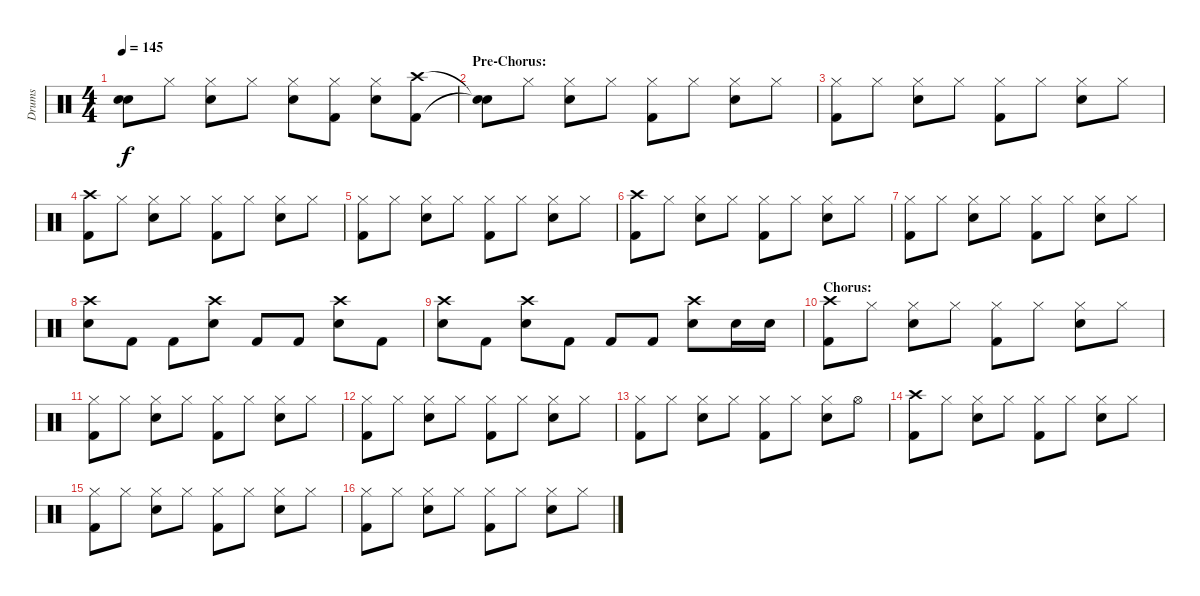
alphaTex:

\track ("Drums" "Drums") {instrument percussion}
\staff {score}
\articulation defaults
\ts (4 4)
\tempo 145
\clef neutral
\ks c
("Snare (hit)"{t} "Snare (hit)"{t}).8{dy f} "Hi-Hat (closed)".8 ("Hi-Hat (closed)" "Electric Snare (hit)").8 "Hi-Hat (closed)".8 ("Hi-Hat (closed)" "Electric Snare (hit)").8 ("Hi-Hat (closed)" "Kick (hit) 2").8 ("Hi-Hat (closed)" "Electric Snare (hit)").8 ("Crash high (hit)" "Kick (hit) 2").8 |
\section ("" "Pre-Chorus:")
("Snare (hit)"{t} "Snare (hit)"{t}).8 "Hi-Hat (closed)".8 ("Hi-Hat (closed)" "Electric Snare (hit)").8 "Hi-Hat (closed)".8 ("Hi-Hat (closed)" "Kick (hit) 2").8 "Hi-Hat (closed)".8 ("Hi-Hat (closed)" "Electric Snare (hit)").8 "Hi-Hat (closed)".8 |
("Hi-Hat (closed)" "Kick (hit) 2").8 "Hi-Hat (closed)".8 ("Hi-Hat (closed)" "Electric Snare (hit)").8 "Hi-Hat (closed)".8 ("Hi-Hat (closed)" "Kick (hit) 2").8 "Hi-Hat (closed)".8 ("Hi-Hat (closed)" "Electric Snare (hit)").8 "Hi-Hat (closed)".8 |
("Crash high (hit)" "Kick (hit) 2").8 "Hi-Hat (closed)".8 ("Hi-Hat (closed)" "Electric Snare (hit)").8 "Hi-Hat (closed)".8 ("Hi-Hat (closed)" "Kick (hit) 2").8 "Hi-Hat (closed)".8 ("Hi-Hat (closed)" "Electric Snare (hit)").8 "Hi-Hat (closed)".8 |
("Hi-Hat (closed)" "Kick (hit) 2").8 "Hi-Hat (closed)".8 ("Hi-Hat (closed)" "Electric Snare (hit)").8 "Hi-Hat (closed)".8 ("Hi-Hat (closed)" "Kick (hit) 2").8 "Hi-Hat (closed)".8 ("Hi-Hat (closed)" "Electric Snare (hit)").8 "Hi-Hat (closed)".8 |
("Crash high (hit)" "Kick (hit) 2").8 "Hi-Hat (closed)".8 ("Hi-Hat (closed)" "Electric Snare (hit)").8 "Hi-Hat (closed)".8 ("Hi-Hat (closed)" "Kick (hit) 2").8 "Hi-Hat (closed)".8 ("Hi-Hat (closed)" "Electric Snare (hit)").8 "Hi-Hat (closed)".8 |
("Hi-Hat (closed)" "Kick (hit) 2").8 "Hi-Hat (closed)".8 ("Hi-Hat (closed)" "Electric Snare (hit)").8 "Hi-Hat (closed)".8 ("Hi-Hat (closed)" "Kick (hit) 2").8 "Hi-Hat (closed)".8 ("Hi-Hat (closed)" "Electric Snare (hit)").8 "Hi-Hat (closed)".8 |
("Crash high (hit)" "Electric Snare (hit)").8 "Kick (hit) 2".8 "Kick (hit) 2".8 ("Crash high (hit)" "Electric Snare (hit)").8 "Kick (hit) 2".8 "Kick (hit) 2".8 ("Crash high (hit)" "Electric Snare (hit)").8 "Kick (hit) 2".8 |
("Crash high (hit)" "Electric Snare (hit)").8 "Kick (hit) 2".8 ("Crash high (hit)" "Electric Snare (hit)").8 "Kick (hit) 2".8 "Kick (hit) 2".8 "Kick (hit) 2".8 ("Crash high (hit)" "Electric Snare (hit)").8 "Electric Snare (hit)".16 "Electric Snare (hit)".16 |
\section ("" "Chorus:")
("Crash high (hit)" "Kick (hit) 2").8 "Hi-Hat (closed)".8 ("Hi-Hat (closed)" "Electric Snare (hit)").8 "Hi-Hat (closed)".8 ("Hi-Hat (closed)" "Kick (hit) 2").8 "Hi-Hat (closed)".8 ("Hi-Hat (closed)" "Electric Snare (hit)").8 "Hi-Hat (closed)".8 |
("Hi-Hat (closed)" "Kick (hit) 2").8 "Hi-Hat (closed)".8 ("Hi-Hat (closed)" "Electric Snare (hit)").8 "Hi-Hat (closed)".8 ("Hi-Hat (closed)" "Kick (hit) 2").8 "Hi-Hat (closed)".8 ("Hi-Hat (closed)" "Electric Snare (hit)").8 "Hi-Hat (closed)".8 |
("Hi-Hat (closed)" "Kick (hit) 2").8 "Hi-Hat (closed)".8 ("Hi-Hat (closed)" "Electric Snare (hit)").8 "Hi-Hat (closed)".8 ("Hi-Hat (closed)" "Kick (hit) 2").8 "Hi-Hat (closed)".8 ("Hi-Hat (closed)" "Electric Snare (hit)").8 "Hi-Hat (closed)".8 |
("Hi-Hat (closed)" "Kick (hit) 2").8 "Hi-Hat (closed)".8 ("Hi-Hat (closed)" "Electric Snare (hit)").8 "Hi-Hat (closed)".8 ("Hi-Hat (closed)" "Kick (hit) 2").8 "Hi-Hat (closed)".8 ("Hi-Hat (closed)" "Electric Snare (hit)").8 "Hi-Hat (open)".8 |
("Crash high (hit)" "Kick (hit) 2").8 "Hi-Hat (closed)".8 ("Hi-Hat (closed)" "Electric Snare (hit)").8 "Hi-Hat (closed)".8 ("Hi-Hat (closed)" "Kick (hit) 2").8 "Hi-Hat (closed)".8 ("Hi-Hat (closed)" "Electric Snare (hit)").8 "Hi-Hat (closed)".8 |
("Hi-Hat (closed)" "Kick (hit) 2").8 "Hi-Hat (closed)".8 ("Hi-Hat (closed)" "Electric Snare (hit)").8 "Hi-Hat (closed)".8 ("Hi-Hat (closed)" "Kick (hit) 2").8 "Hi-Hat (closed)".8 ("Hi-Hat (closed)" "Electric Snare (hit)").8 "Hi-Hat (closed)".8 |
("Hi-Hat (closed)" "Kick (hit) 2").8 "Hi-Hat (closed)".8 ("Hi-Hat (closed)" "Electric Snare (hit)").8 "Hi-Hat (closed)".8 ("Hi-Hat (closed)" "Kick (hit) 2").8 "Hi-Hat (closed)".8 ("Hi-Hat (closed)" "Electric Snare (hit)").8 "Hi-Hat (closed)".8
